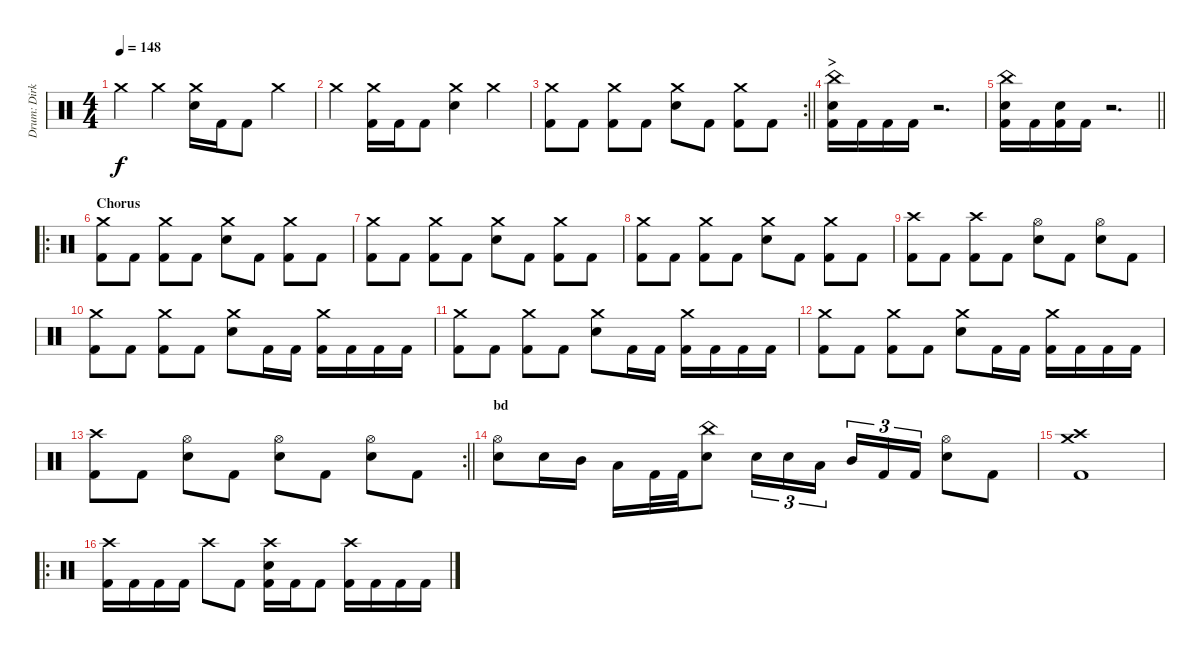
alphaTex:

\track ("Drum: Dirk" "Drum: Dirk") {instrument percussion}
\staff {score}
\articulation defaults
\ts (4 4)
\tempo 148
\clef neutral
\ks c "Crash medium (hit)".4{dy f} "Crash medium (hit)".4
("Crash medium (hit)" "Electric Snare (hit)").16 "Kick (hit) 2".16 "Kick (hit) 2".8 "Crash medium (hit)".4 |
"Crash medium (hit)".4 ("Crash medium (hit)" "Kick (hit) 2").16 "Kick (hit) 2".16 "Kick (hit) 2".8 ("Crash medium (hit)" "Electric Snare (hit)").4 "Crash medium (hit)".4 |
\rc 2
\barLineRight lightlight
("Crash medium (hit)" "Kick (hit) 2").8 "Kick (hit) 2".8 ("Crash medium (hit)" "Kick (hit) 2").8 "Kick (hit) 2".8 ("Crash medium (hit)" "Electric Snare (hit)").8 "Kick (hit) 2".8 ("Crash medium (hit)" "Kick (hit) 2").8 "Kick (hit) 2".8 |
\section ("" ">")
("China (hit)" "Electric Snare (hit)" "Kick (hit) 2").16 "Kick (hit) 2".16 "Kick (hit) 2".16 "Kick (hit) 2".16 r.2{d} |
\barLineRight lightlight
("China (hit)" "Electric Snare (hit)" "Kick (hit) 2").16 "Kick (hit) 2".16 ("Electric Snare (hit)" "Kick (hit) 2").16 "Kick (hit) 2".16 r.2{d} |
\ro
\section ("" "Chorus")
("Crash medium (hit)" "Kick (hit) 2").8 "Kick (hit) 2".8 ("Crash medium (hit)" "Kick (hit) 2").8 "Kick (hit) 2".8 ("Crash medium (hit)" "Electric Snare (hit)").8 "Kick (hit) 2".8 ("Crash medium (hit)" "Kick (hit) 2").8 "Kick (hit) 2".8 |
("Crash medium (hit)" "Kick (hit) 2").8 "Kick (hit) 2".8 ("Crash medium (hit)" "Kick (hit) 2").8 "Kick (hit) 2".8 ("Crash medium (hit)" "Electric Snare (hit)").8 "Kick (hit) 2".8 ("Crash medium (hit)" "Kick (hit) 2").8 "Kick (hit) 2".8 |
("Crash medium (hit)" "Kick (hit) 2").8 "Kick (hit) 2".8 ("Crash medium (hit)" "Kick (hit) 2").8 "Kick (hit) 2".8 ("Crash medium (hit)" "Electric Snare (hit)").8 "Kick (hit) 2".8 ("Crash medium (hit)" "Kick (hit) 2").8 "Kick (hit) 2".8 |
("Crash high (hit)" "Kick (hit) 2").8 "Kick (hit) 2".8 ("Crash high (hit)" "Kick (hit) 2").8 "Kick (hit) 2".8 ("Hi-Hat (open)" "Electric Snare (hit)").8 "Kick (hit) 2".8 ("Hi-Hat (open)" "Electric Snare (hit)").8 "Kick (hit) 2".8 |
("Crash medium (hit)" "Kick (hit) 2").8 "Kick (hit) 2".8 ("Crash medium (hit)" "Kick (hit) 2").8 "Kick (hit) 2".8 ("Crash medium (hit)" "Electric Snare (hit)").8 "Kick (hit) 2".16 "Kick (hit) 2".16 ("Crash medium (hit)" "Kick (hit) 2").16 "Kick (hit) 2".16 "Kick (hit) 2".16 "Kick (hit) 2".16 |
("Crash medium (hit)" "Kick (hit) 2").8 "Kick (hit) 2".8 ("Crash medium (hit)" "Kick (hit) 2").8 "Kick (hit) 2".8 ("Crash medium (hit)" "Electric Snare (hit)").8 "Kick (hit) 2".16 "Kick (hit) 2".16 ("Crash medium (hit)" "Kick (hit) 2").16 "Kick (hit) 2".16 "Kick (hit) 2".16 "Kick (hit) 2".16 |
("Crash medium (hit)" "Kick (hit) 2").8 "Kick (hit) 2".8 ("Crash medium (hit)" "Kick (hit) 2").8 "Kick (hit) 2".8 ("Crash medium (hit)" "Electric Snare (hit)").8 "Kick (hit) 2".16 "Kick (hit) 2".16 ("Crash medium (hit)" "Kick (hit) 2").16 "Kick (hit) 2".16 "Kick (hit) 2".16 "Kick (hit) 2".16 |
\rc 2
\barLineRight lightlight
("Crash high (hit)" "Kick (hit) 2").8 "Kick (hit) 2".8 ("Hi-Hat (open)" "Electric Snare (hit)").8 "Kick (hit) 2".8 ("Hi-Hat (open)" "Electric Snare (hit)").8 "Kick (hit) 2".8 ("Hi-Hat (open)" "Electric Snare (hit)").8 "Kick (hit) 2".8 |
\section ("" "bd")
("Hi-Hat (open)" "Electric Snare (hit)").8 "Electric Snare (hit)".16 "Mid Tom (hit)".16 "Low Tom (hit)".16 "Kick (hit) 2".32 "Kick (hit) 2".32 ("China (hit)" "Electric Snare (hit)").8 "Electric Snare (hit)".16{tu (3 2)} "Electric Snare (hit)".16{tu (3 2)} "Low Tom (hit)".16{tu (3 2) beam splitsecondary} "Mid Tom (hit)".16{tu (3 2)} "Kick (hit) 2".16{tu (3 2)} "Kick (hit) 2".16{tu (3 2)} ("Hi-Hat (open)" "Electric Snare (hit)").8 "Kick (hit) 2".8 |
("Crash high (hit)" "Crash medium (hit)" "Kick (hit) 2").1 |
\ro
("Crash high (hit)" "Kick (hit) 2").16 "Kick (hit) 2".16 "Kick (hit) 2".16 "Kick (hit) 2".16 "Crash high (hit)".8 "Kick (hit) 2".8 ("Crash high (hit)" "Electric Snare (hit)" "Kick (hit) 2").16 "Kick (hit) 2".16 "Kick (hit) 2".8 ("Crash high (hit)" "Kick (hit) 2").16 "Kick (hit) 2".16 "Kick (hit) 2".16 "Kick (hit) 2".16
